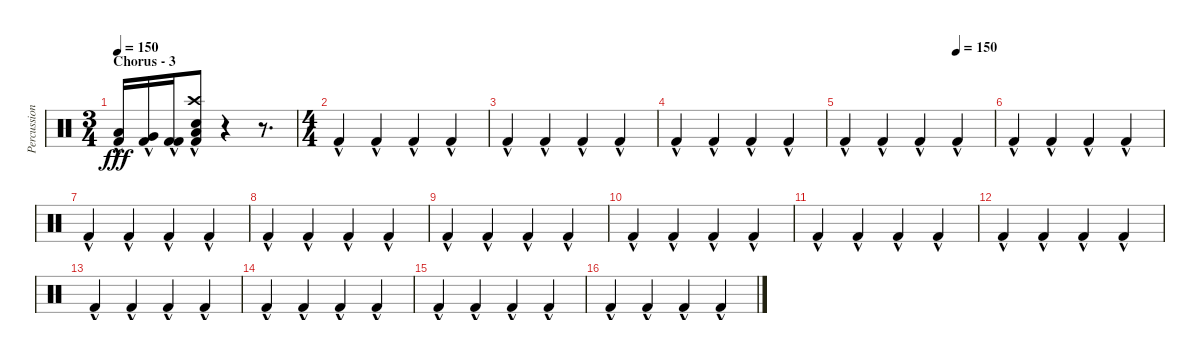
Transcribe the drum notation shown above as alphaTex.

\track ("Percussion" "Percussion") {instrument percussion}
\staff {score}
\articulation defaults
\ts (3 4)
\section ("" "Chorus - 3")
\tempo 150
\clef neutral
\ks c
("Low Floor Tom (hit)"{hac} "Kick (hit) 2"{hac}).16{dy fff volume 14} ("Very Low Tom (hit)"{hac} "Kick (hit) 2"{hac}).16 ("Kick (hit) 2"{hac} "Kick (hit) 2"{hac}).16 ("Crash high (hit)"{hac} "Electric Snare (hit)"{hac} "Low Floor Tom (hit)"{hac} "Kick (hit) 2"{hac}).8 r.4 r.8{d} |
\ts (4 4)
"Kick (hit) 2"{hac}.4 "Kick (hit) 2"{hac}.4 "Kick (hit) 2"{hac}.4 "Kick (hit) 2"{hac}.4 |
"Kick (hit) 2"{hac}.4 "Kick (hit) 2"{hac}.4 "Kick (hit) 2"{hac}.4 "Kick (hit) 2"{hac}.4 |
"Kick (hit) 2"{hac}.4 "Kick (hit) 2"{hac}.4 "Kick (hit) 2"{hac}.4 "Kick (hit) 2"{hac}.4 |
\tempo (150 0.75)
"Kick (hit) 2"{hac}.4 "Kick (hit) 2"{hac}.4 "Kick (hit) 2"{hac}.4 "Kick (hit) 2"{hac}.4 |
"Kick (hit) 2"{hac}.4 "Kick (hit) 2"{hac}.4 "Kick (hit) 2"{hac}.4 "Kick (hit) 2"{hac}.4 |
"Kick (hit) 2"{hac}.4 "Kick (hit) 2"{hac}.4 "Kick (hit) 2"{hac}.4 "Kick (hit) 2"{hac}.4 |
"Kick (hit) 2"{hac}.4 "Kick (hit) 2"{hac}.4 "Kick (hit) 2"{hac}.4 "Kick (hit) 2"{hac}.4 |
"Kick (hit) 2"{hac}.4 "Kick (hit) 2"{hac}.4 "Kick (hit) 2"{hac}.4 "Kick (hit) 2"{hac}.4 |
"Kick (hit) 2"{hac}.4 "Kick (hit) 2"{hac}.4 "Kick (hit) 2"{hac}.4 "Kick (hit) 2"{hac}.4 |
"Kick (hit) 2"{hac}.4 "Kick (hit) 2"{hac}.4 "Kick (hit) 2"{hac}.4 "Kick (hit) 2"{hac}.4 |
"Kick (hit) 2"{hac}.4 "Kick (hit) 2"{hac}.4 "Kick (hit) 2"{hac}.4 "Kick (hit) 2"{hac}.4 |
"Kick (hit) 2"{hac}.4 "Kick (hit) 2"{hac}.4 "Kick (hit) 2"{hac}.4 "Kick (hit) 2"{hac}.4 |
"Kick (hit) 2"{hac}.4 "Kick (hit) 2"{hac}.4 "Kick (hit) 2"{hac}.4 "Kick (hit) 2"{hac}.4 |
"Kick (hit) 2"{hac}.4 "Kick (hit) 2"{hac}.4 "Kick (hit) 2"{hac}.4 "Kick (hit) 2"{hac}.4 |
"Kick (hit) 2"{hac}.4 "Kick (hit) 2"{hac}.4 "Kick (hit) 2"{hac}.4 "Kick (hit) 2"{hac}.4
